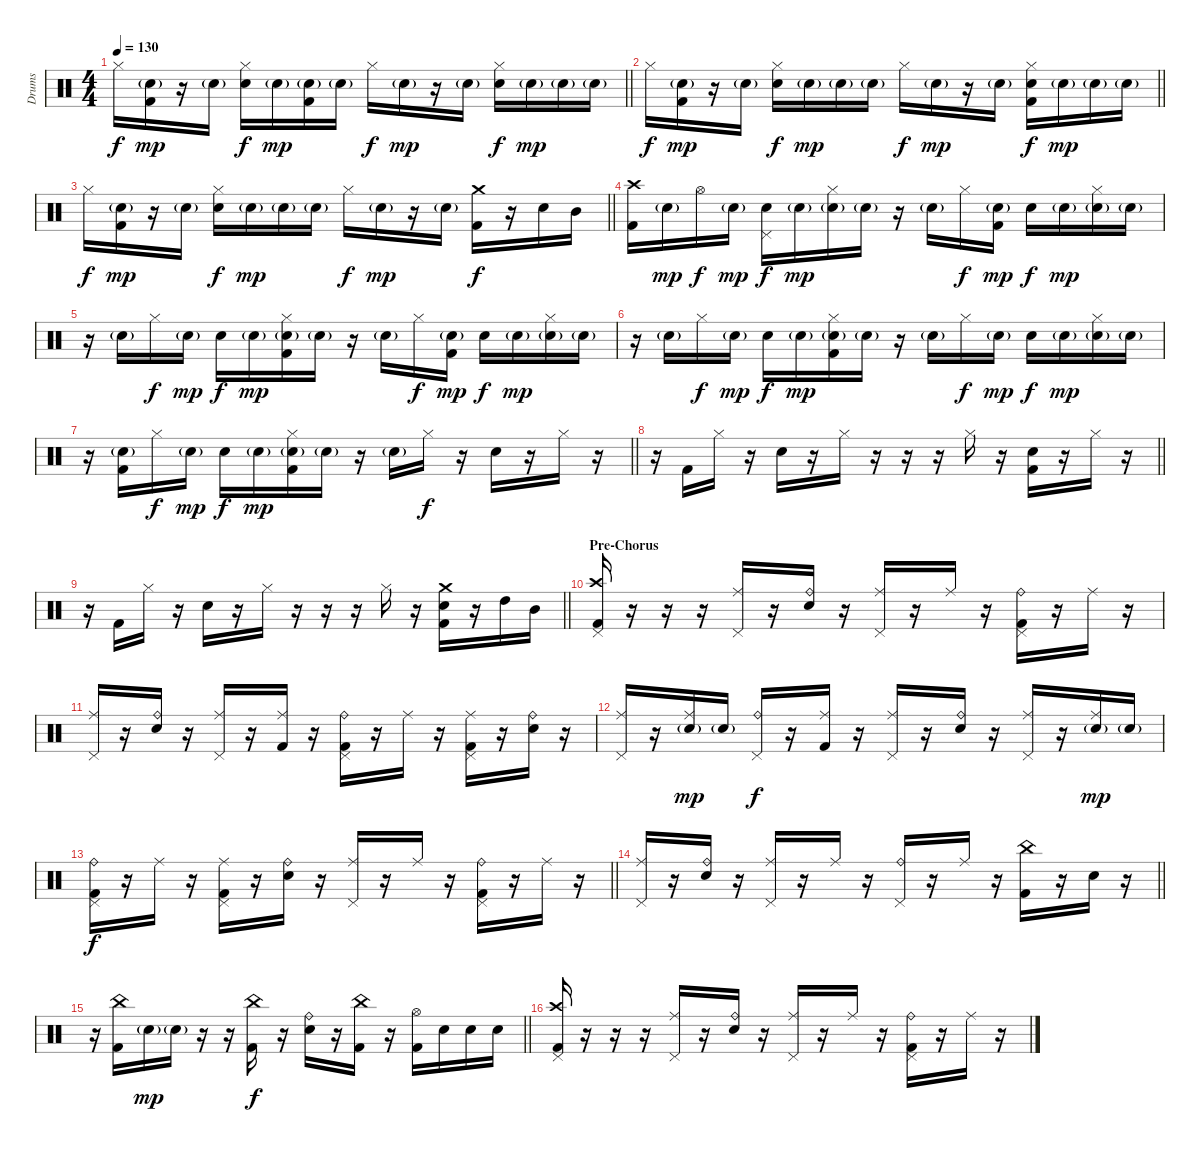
\track ("Drums" "Drums") {instrument percussion}
\staff {score}
\articulation defaults
\ts (4 4)
\tempo 130
\clef neutral
\barLineRight lightlight
\ks c "Hi-Hat (closed)".16{dy f}
("Electric Snare (hit)"{g} "Kick (hit) 2").16{dy mp} r.16 "Electric Snare (hit)"{g}.16 ("Hi-Hat (closed)" "Electric Snare (hit)").16{dy f} "Electric Snare (hit)"{g}.16{dy mp} ("Electric Snare (hit)"{g} "Kick (hit) 2").16 "Electric Snare (hit)"{g}.16 "Hi-Hat (closed)".16{dy f} "Electric Snare (hit)"{g}.16{dy mp} r.16 "Electric Snare (hit)"{g}.16 ("Hi-Hat (closed)" "Electric Snare (hit)").16{dy f} "Electric Snare (hit)"{g}.16{dy mp} "Electric Snare (hit)"{g}.16 "Electric Snare (hit)"{g}.16 |
\barLineRight lightlight "Hi-Hat (closed)".16{dy f}
("Electric Snare (hit)"{g} "Kick (hit) 2").16{dy mp} r.16 "Electric Snare (hit)"{g}.16 ("Hi-Hat (closed)" "Electric Snare (hit)").16{dy f} "Electric Snare (hit)"{g}.16{dy mp} "Electric Snare (hit)"{g}.16 "Electric Snare (hit)"{g}.16 "Hi-Hat (closed)".16{dy f} "Electric Snare (hit)"{g}.16{dy mp} r.16 "Electric Snare (hit)"{g}.16 ("Hi-Hat (closed)" "Electric Snare (hit)" "Kick (hit) 2").16{dy f} "Electric Snare (hit)"{g}.16{dy mp} "Electric Snare (hit)"{g}.16 "Electric Snare (hit)"{g}.16 |
\barLineRight lightlight "Hi-Hat (closed)".16{dy f}
("Electric Snare (hit)"{g} "Kick (hit) 2").16{dy mp} r.16 "Electric Snare (hit)"{g}.16 ("Hi-Hat (closed)" "Electric Snare (hit)").16{dy f} "Electric Snare (hit)"{g}.16{dy mp} "Electric Snare (hit)"{g}.16 "Electric Snare (hit)"{g}.16 "Hi-Hat (closed)".16{dy f} "Electric Snare (hit)"{g}.16{dy mp} r.16 "Electric Snare (hit)"{g}.16 ("Crash medium (hit)" "Kick (hit) 2").16{dy f} r.16 "Electric Snare (hit)".16 "Mid Tom (hit)".16 |
("Crash high (hit)" "Kick (hit) 2").16 "Electric Snare (hit)"{g}.16{dy mp} "Hi-Hat (open)".16{dy f} "Electric Snare (hit)"{g}.16{dy mp} ("Pedal Hi-Hat (hit)" "Electric Snare (hit)").16{dy f} "Electric Snare (hit)"{g}.16{dy mp} ("Hi-Hat (closed)" "Electric Snare (hit)"{g}).16 "Electric Snare (hit)"{g}.16 r.16 "Electric Snare (hit)"{g}.16 "Hi-Hat (closed)".16{dy f} ("Electric Snare (hit)"{g} "Kick (hit) 2").16{dy mp} "Electric Snare (hit)".16{dy f} "Electric Snare (hit)"{g}.16{dy mp} ("Hi-Hat (closed)" "Electric Snare (hit)"{g}).16 "Electric Snare (hit)"{g}.16 |
r.16 "Electric Snare (hit)"{g}.16 "Hi-Hat (closed)".16{dy f} "Electric Snare (hit)"{g}.16{dy mp} "Electric Snare (hit)".16{dy f} "Electric Snare (hit)"{g}.16{dy mp} ("Hi-Hat (closed)" "Electric Snare (hit)"{g} "Kick (hit) 2").16 "Electric Snare (hit)"{g}.16 r.16 "Electric Snare (hit)"{g}.16 "Hi-Hat (closed)".16{dy f} ("Electric Snare (hit)"{g} "Kick (hit) 2").16{dy mp} "Electric Snare (hit)".16{dy f} "Electric Snare (hit)"{g}.16{dy mp} ("Hi-Hat (closed)" "Electric Snare (hit)"{g}).16 "Electric Snare (hit)"{g}.16 |
r.16 "Electric Snare (hit)"{g}.16 "Hi-Hat (closed)".16{dy f} "Electric Snare (hit)"{g}.16{dy mp} "Electric Snare (hit)".16{dy f} "Electric Snare (hit)"{g}.16{dy mp} ("Hi-Hat (closed)" "Electric Snare (hit)"{g} "Kick (hit) 2").16 "Electric Snare (hit)"{g}.16 r.16 "Electric Snare (hit)"{g}.16 "Hi-Hat (closed)".16{dy f} "Electric Snare (hit)"{g}.16{dy mp} "Electric Snare (hit)".16{dy f} "Electric Snare (hit)"{g}.16{dy mp} ("Hi-Hat (closed)" "Electric Snare (hit)"{g}).16 "Electric Snare (hit)"{g}.16 |
\barLineRight lightlight
r.16 ("Electric Snare (hit)"{g} "Kick (hit) 2").16 "Hi-Hat (closed)".16{dy f} "Electric Snare (hit)"{g}.16{dy mp} "Electric Snare (hit)".16{dy f} "Electric Snare (hit)"{g}.16{dy mp} ("Hi-Hat (closed)" "Electric Snare (hit)"{g} "Kick (hit) 2").16 "Electric Snare (hit)"{g}.16 r.16 "Electric Snare (hit)"{g}.16 "Hi-Hat (closed)".16{dy f} r.16 "Electric Snare (hit)".16 r.16 "Hi-Hat (closed)".16 r.16 |
\barLineRight lightlight
r.16 "Kick (hit) 2".16 "Hi-Hat (closed)".16 r.16 "Electric Snare (hit)".16 r.16 "Hi-Hat (closed)".16 r.16 r.16 r.16 "Hi-Hat (closed)".16 r.16 ("Electric Snare (hit)" "Kick (hit) 2").16 r.16 "Hi-Hat (closed)".16 r.16 |
\barLineRight lightlight
r.16 "Kick (hit) 2".16 "Hi-Hat (closed)".16 r.16 "Electric Snare (hit)".16 r.16 "Hi-Hat (closed)".16 r.16 r.16 r.16 "Hi-Hat (closed)".16 r.16 ("Crash medium (hit)" "Electric Snare (hit)" "Kick (hit) 2").16 r.16 "High Tom (hit)".16 "Mid Tom (hit)".16 |
\section ("" "Pre-Chorus")
("Crash high (hit)" "Pedal Hi-Hat (hit)" "Kick (hit) 2").16 r.16 r.16 r.16 ("Ride (middle)" "Pedal Hi-Hat (hit)").16 r.16 ("Ride (bell)" "Electric Snare (hit)").16 r.16 ("Ride (middle)" "Pedal Hi-Hat (hit)").16 r.16 "Ride (middle)".16 r.16 ("Ride (bell)" "Pedal Hi-Hat (hit)" "Kick (hit) 2").16 r.16 "Ride (middle)".16 r.16 |
("Ride (middle)" "Pedal Hi-Hat (hit)").16 r.16 ("Ride (bell)" "Electric Snare (hit)").16 r.16 ("Ride (middle)" "Pedal Hi-Hat (hit)").16 r.16 ("Ride (middle)" "Kick (hit) 2").16 r.16 ("Ride (bell)" "Pedal Hi-Hat (hit)" "Kick (hit) 2").16 r.16 "Ride (middle)".16 r.16 ("Ride (middle)" "Pedal Hi-Hat (hit)" "Kick (hit) 2").16 r.16 ("Ride (bell)" "Electric Snare (hit)").16 r.16 |
("Ride (middle)" "Pedal Hi-Hat (hit)").16 r.16 ("Ride (middle)" "Electric Snare (hit)"{g}).16{dy mp} "Electric Snare (hit)"{g}.16 ("Ride (bell)" "Pedal Hi-Hat (hit)").16{dy f} r.16 ("Ride (middle)" "Kick (hit) 2").16 r.16 ("Ride (middle)" "Pedal Hi-Hat (hit)").16 r.16 ("Ride (bell)" "Electric Snare (hit)").16 r.16 ("Ride (middle)" "Pedal Hi-Hat (hit)").16 r.16 ("Ride (middle)" "Electric Snare (hit)"{g}).16{dy mp} "Electric Snare (hit)"{g}.16 |
\barLineRight lightlight
("Ride (bell)" "Pedal Hi-Hat (hit)" "Kick (hit) 2").16{dy f} r.16 "Ride (middle)".16 r.16 ("Ride (middle)" "Pedal Hi-Hat (hit)" "Kick (hit) 2").16 r.16 ("Ride (bell)" "Electric Snare (hit)").16 r.16 ("Ride (middle)" "Pedal Hi-Hat (hit)").16 r.16 "Ride (middle)".16 r.16 ("Ride (bell)" "Pedal Hi-Hat (hit)" "Kick (hit) 2").16 r.16 "Ride (middle)".16 r.16 |
\barLineRight lightlight
("Ride (middle)" "Pedal Hi-Hat (hit)").16 r.16 ("Ride (bell)" "Electric Snare (hit)").16 r.16 ("Ride (middle)" "Pedal Hi-Hat (hit)").16 r.16 "Ride (middle)".16 r.16 ("Ride (bell)" "Pedal Hi-Hat (hit)").16 r.16 "Ride (middle)".16 r.16 ("China (hit)" "Kick (hit) 2").16 r.16 "Electric Snare (hit)".16 r.16 |
\barLineRight lightlight
r.16 ("China (hit)" "Kick (hit) 2").16 "Electric Snare (hit)"{g}.16{dy mp} "Electric Snare (hit)"{g}.16 r.16 r.16 ("China (hit)" "Kick (hit) 2").16{dy f} r.16 ("Ride (bell)" "Electric Snare (hit)").16 r.16 ("China (hit)" "Kick (hit) 2").16 r.16 ("Hi-Hat (open)" "Kick (hit) 2").16 "Electric Snare (hit)".16 "Electric Snare (hit)".16 "Electric Snare (hit)".16 |
("Crash high (hit)" "Pedal Hi-Hat (hit)" "Kick (hit) 2").16 r.16 r.16 r.16 ("Ride (middle)" "Pedal Hi-Hat (hit)").16 r.16 ("Ride (bell)" "Electric Snare (hit)").16 r.16 ("Ride (middle)" "Pedal Hi-Hat (hit)").16 r.16 "Ride (middle)".16 r.16 ("Ride (bell)" "Pedal Hi-Hat (hit)" "Kick (hit) 2").16 r.16 "Ride (middle)".16 r.16
